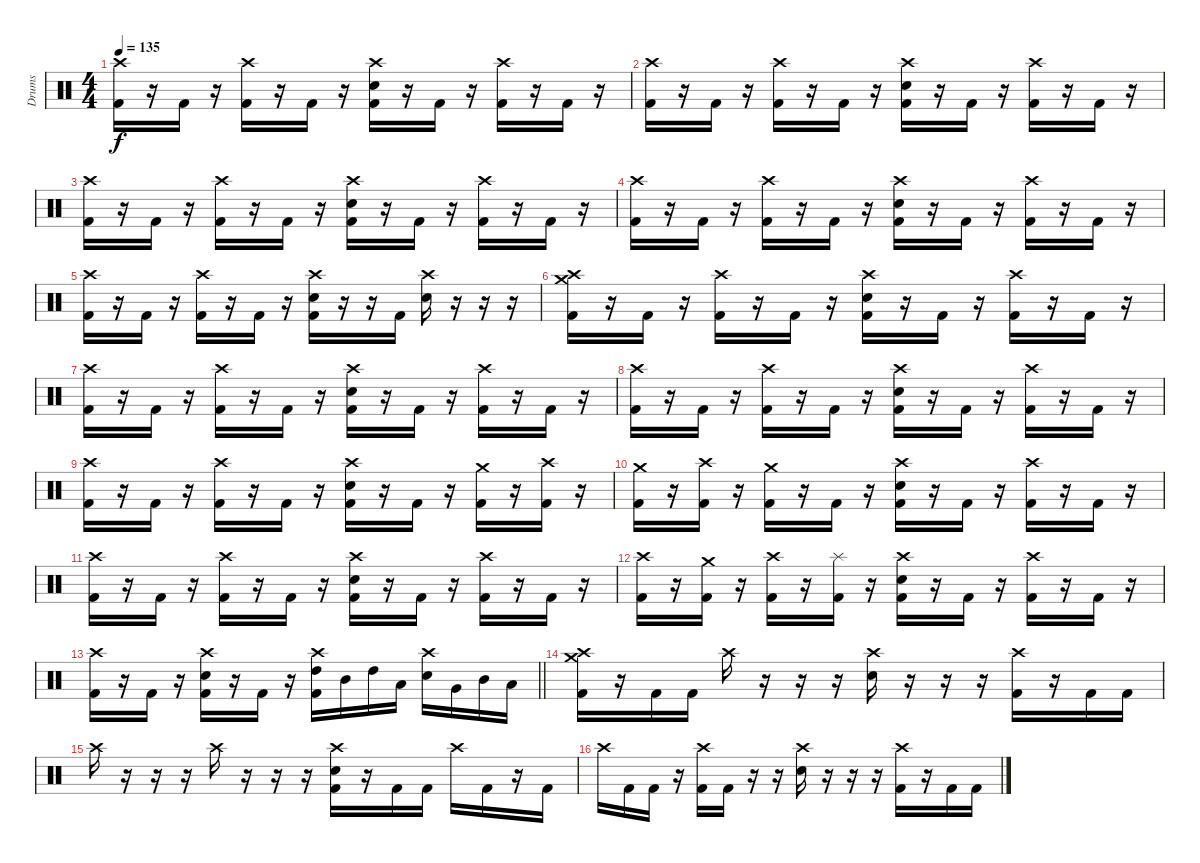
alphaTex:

\track ("Drums" "Drums") {instrument percussion}
\staff {score}
\articulation defaults
\ts (4 4)
\tempo 135
\clef neutral
\ks c
("Crash high (hit)" "Kick (hit) 2").16{dy f} r.16 "Kick (hit) 2".16 r.16 ("Crash high (hit)" "Kick (hit) 2").16 r.16 "Kick (hit) 2".16 r.16 ("Crash high (hit)" "Electric Snare (hit)" "Kick (hit) 2").16 r.16 "Kick (hit) 2".16 r.16 ("Crash high (hit)" "Kick (hit) 2").16 r.16 "Kick (hit) 2".16 r.16 |
("Crash high (hit)" "Kick (hit) 2").16 r.16 "Kick (hit) 2".16 r.16 ("Crash high (hit)" "Kick (hit) 2").16 r.16 "Kick (hit) 2".16 r.16 ("Crash high (hit)" "Electric Snare (hit)" "Kick (hit) 2").16 r.16 "Kick (hit) 2".16 r.16 ("Crash high (hit)" "Kick (hit) 2").16 r.16 "Kick (hit) 2".16 r.16 |
("Crash high (hit)" "Kick (hit) 2").16 r.16 "Kick (hit) 2".16 r.16 ("Crash high (hit)" "Kick (hit) 2").16 r.16 "Kick (hit) 2".16 r.16 ("Crash high (hit)" "Electric Snare (hit)" "Kick (hit) 2").16 r.16 "Kick (hit) 2".16 r.16 ("Crash high (hit)" "Kick (hit) 2").16 r.16 "Kick (hit) 2".16 r.16 |
("Crash high (hit)" "Kick (hit) 2").16 r.16 "Kick (hit) 2".16 r.16 ("Crash high (hit)" "Kick (hit) 2").16 r.16 "Kick (hit) 2".16 r.16 ("Crash high (hit)" "Electric Snare (hit)" "Kick (hit) 2").16 r.16 "Kick (hit) 2".16 r.16 ("Crash high (hit)" "Kick (hit) 2").16 r.16 "Kick (hit) 2".16 r.16 |
("Crash high (hit)" "Kick (hit) 2").16 r.16 "Kick (hit) 2".16 r.16 ("Crash high (hit)" "Kick (hit) 2").16 r.16 "Kick (hit) 2".16 r.16 ("Crash high (hit)" "Electric Snare (hit)" "Kick (hit) 2").16 r.16 r.16 "Kick (hit) 2".16 ("Crash high (hit)" "Electric Snare (hit)").16 r.16 r.16 r.16 |
("Crash medium (hit)" "Crash high (hit)" "Kick (hit) 2").16 r.16 "Kick (hit) 2".16 r.16 ("Crash high (hit)" "Kick (hit) 2").16 r.16 "Kick (hit) 2".16 r.16 ("Crash high (hit)" "Electric Snare (hit)" "Kick (hit) 2").16 r.16 "Kick (hit) 2".16 r.16 ("Crash high (hit)" "Kick (hit) 2").16 r.16 "Kick (hit) 2".16 r.16 |
("Crash high (hit)" "Kick (hit) 2").16 r.16 "Kick (hit) 2".16 r.16 ("Crash high (hit)" "Kick (hit) 2").16 r.16 "Kick (hit) 2".16 r.16 ("Crash high (hit)" "Electric Snare (hit)" "Kick (hit) 2").16 r.16 "Kick (hit) 2".16 r.16 ("Crash high (hit)" "Kick (hit) 2").16 r.16 "Kick (hit) 2".16 r.16 |
("Crash high (hit)" "Kick (hit) 2").16 r.16 "Kick (hit) 2".16 r.16 ("Crash high (hit)" "Kick (hit) 2").16 r.16 "Kick (hit) 2".16 r.16 ("Crash high (hit)" "Electric Snare (hit)" "Kick (hit) 2").16 r.16 "Kick (hit) 2".16 r.16 ("Crash high (hit)" "Kick (hit) 2").16 r.16 "Kick (hit) 2".16 r.16 |
("Crash high (hit)" "Kick (hit) 2").16 r.16 "Kick (hit) 2".16 r.16 ("Crash high (hit)" "Kick (hit) 2").16 r.16 "Kick (hit) 2".16 r.16 ("Crash high (hit)" "Electric Snare (hit)" "Kick (hit) 2").16 r.16 "Kick (hit) 2".16 r.16 ("Crash medium (hit)" "Kick (hit) 2").16 r.16 ("Crash high (hit)" "Kick (hit) 2").16 r.16 |
("Crash medium (hit)" "Kick (hit) 2").16 r.16 ("Crash high (hit)" "Kick (hit) 2").16 r.16 ("Crash medium (hit)" "Kick (hit) 2").16 r.16 "Kick (hit) 2".16 r.16 ("Crash high (hit)" "Electric Snare (hit)" "Kick (hit) 2").16 r.16 "Kick (hit) 2".16 r.16 ("Crash high (hit)" "Kick (hit) 2").16 r.16 "Kick (hit) 2".16 r.16 |
("Crash high (hit)" "Kick (hit) 2").16 r.16 "Kick (hit) 2".16 r.16 ("Crash high (hit)" "Kick (hit) 2").16 r.16 "Kick (hit) 2".16 r.16 ("Crash high (hit)" "Electric Snare (hit)" "Kick (hit) 2").16 r.16 "Kick (hit) 2".16 r.16 ("Crash high (hit)" "Kick (hit) 2").16 r.16 "Kick (hit) 2".16 r.16 |
("Crash high (hit)" "Kick (hit) 2").16 r.16 ("Crash medium (hit)" "Kick (hit) 2").16 r.16 ("Crash high (hit)" "Kick (hit) 2").16 r.16 ("Splash (hit)" "Kick (hit) 2").16 r.16 ("Crash high (hit)" "Electric Snare (hit)" "Kick (hit) 2").16 r.16 "Kick (hit) 2".16 r.16 ("Crash high (hit)" "Kick (hit) 2").16 r.16 "Kick (hit) 2".16 r.16 |
\barLineRight lightlight
("Crash high (hit)" "Kick (hit) 2").16 r.16 "Kick (hit) 2".16 r.16 ("Crash high (hit)" "Electric Snare (hit)" "Kick (hit) 2").16 r.16 "Kick (hit) 2".16 r.16 ("Crash high (hit)" "High Tom (hit)" "Kick (hit) 2").16 "Mid Tom (hit)".16 "High Tom (hit)".16 "Low Tom (hit)".16 ("Crash high (hit)" "Electric Snare (hit)").16 "Very Low Tom (hit)".16 "Mid Tom (hit)".16 "Low Tom (hit)".16 |
\section ("" "")
("Crash medium (hit)" "Crash high (hit)" "Kick (hit) 2").16 r.16 "Kick (hit) 2".16 "Kick (hit) 2".16 "Crash high (hit)".16 r.16 r.16 r.16 ("Crash high (hit)" "Electric Snare (hit)").16 r.16 r.16 r.16 ("Crash high (hit)" "Kick (hit) 2").16 r.16 "Kick (hit) 2".16 "Kick (hit) 2".16 |
"Crash high (hit)".16 r.16 r.16 r.16 "Crash high (hit)".16 r.16 r.16 r.16 ("Crash high (hit)" "Electric Snare (hit)" "Kick (hit) 2").16 r.16 "Kick (hit) 2".16 "Kick (hit) 2".16 "Crash high (hit)".16 "Kick (hit) 2".16 r.16 "Kick (hit) 2".16 |
"Crash high (hit)".16 "Kick (hit) 2".16 "Kick (hit) 2".16 r.16 ("Crash high (hit)" "Kick (hit) 2").16 "Kick (hit) 2".16 r.16 r.16 ("Crash high (hit)" "Electric Snare (hit)").16 r.16 r.16 r.16 ("Crash high (hit)" "Kick (hit) 2").16 r.16 "Kick (hit) 2".16 "Kick (hit) 2".16
